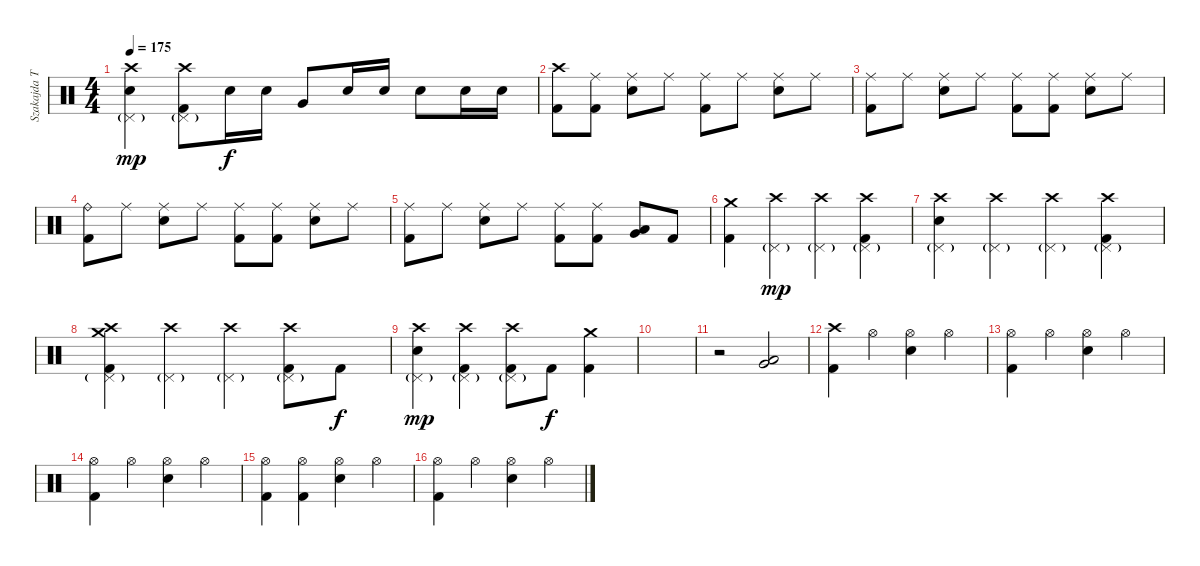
\track ("Szakajda Tibi" "Szakajda T") {instrument percussion}
\staff {score}
\articulation defaults
\ts (4 4)
\tempo 175
\clef neutral
\ks c
("Crash high (hit)" "Pedal Hi-Hat (hit)"{g} "Snare (hit) 2").4{dy mp} ("Crash high (hit)" "Pedal Hi-Hat (hit)"{g} "Kick (hit) 2").8 "Snare (hit) 2".16{dy f} "Snare (hit) 2".16 "Very Low Tom (hit)".8 "Snare (hit) 2".16 "Snare (hit) 2".16 "Snare (hit) 2".8 "Snare (hit) 2".16 "Snare (hit) 2".16 |
("Crash high (hit)" "Kick (hit) 2").8 ("Ride (middle)" "Kick (hit) 2").8 ("Ride (middle)" "Snare (hit) 2").8 "Ride (middle)".8 ("Ride (middle)" "Kick (hit) 2").8 "Ride (middle)".8 ("Ride (middle)" "Snare (hit) 2").8 "Ride (middle)".8 |
("Ride (middle)" "Kick (hit) 2").8 "Ride (middle)".8 ("Ride (middle)" "Snare (hit) 2").8 "Ride (middle)".8 ("Ride (middle)" "Kick (hit) 2").8 ("Ride (middle)" "Kick (hit) 2").8 ("Ride (middle)" "Snare (hit) 2").8 "Ride (middle)".8 |
("Ride (bell)" "Kick (hit) 2").8 "Ride (middle)".8 ("Ride (middle)" "Snare (hit) 2").8 "Ride (middle)".8 ("Ride (middle)" "Kick (hit) 2").8 ("Ride (middle)" "Kick (hit) 2").8 ("Ride (middle)" "Snare (hit) 2").8 "Ride (middle)".8 |
("Ride (middle)" "Kick (hit) 2").8 "Ride (middle)".8 ("Ride (middle)" "Snare (hit) 2").8 "Ride (middle)".8 ("Ride (middle)" "Kick (hit) 2").8 ("Ride (middle)" "Kick (hit) 2").8 ("Very Low Tom (hit)" "Low Tom (hit)").8 "Kick (hit) 2".8 |
("Crash medium (hit)" "Kick (hit) 2").4 ("Crash high (hit)" "Pedal Hi-Hat (hit)"{g}).4{dy mp} ("Crash high (hit)" "Pedal Hi-Hat (hit)"{g}).4 ("Crash high (hit)" "Pedal Hi-Hat (hit)"{g} "Kick (hit) 2").4 |
("Crash high (hit)" "Pedal Hi-Hat (hit)"{g} "Snare (hit) 2").4 ("Crash high (hit)" "Pedal Hi-Hat (hit)"{g}).4 ("Crash high (hit)" "Pedal Hi-Hat (hit)"{g}).4 ("Crash high (hit)" "Pedal Hi-Hat (hit)"{g} "Kick (hit) 2").4 |
("Crash high (hit)" "Pedal Hi-Hat (hit)"{g} "Crash medium (hit)" "Kick (hit) 2").4 ("Crash high (hit)" "Pedal Hi-Hat (hit)"{g}).4 ("Crash high (hit)" "Pedal Hi-Hat (hit)"{g}).4 ("Crash high (hit)" "Pedal Hi-Hat (hit)"{g} "Kick (hit) 2").8 "Kick (hit) 2".8{dy f} |
("Crash high (hit)" "Pedal Hi-Hat (hit)"{g} "Snare (hit) 2").4{dy mp} ("Crash high (hit)" "Pedal Hi-Hat (hit)"{g} "Kick (hit) 2").4 ("Crash high (hit)" "Pedal Hi-Hat (hit)"{g} "Kick (hit) 2").8 "Kick (hit) 2".8{dy f} ("Crash medium (hit)" "Kick (hit) 2").4 |
|
r.2 ("Low Tom (hit)" "Very Low Tom (hit)").2 |
("Crash high (hit)" "Kick (hit) 2").4 "Hi-Hat (open)".4 ("Hi-Hat (open)" "Snare (hit) 2").4 "Hi-Hat (open)".4 |
("Hi-Hat (open)" "Kick (hit) 2").4 "Hi-Hat (open)".4 ("Hi-Hat (open)" "Snare (hit) 2").4 "Hi-Hat (open)".4 |
("Hi-Hat (open)" "Kick (hit) 2").4 "Hi-Hat (open)".4 ("Hi-Hat (open)" "Snare (hit) 2").4 "Hi-Hat (open)".4 |
("Hi-Hat (open)" "Kick (hit) 2").4 ("Hi-Hat (open)" "Kick (hit) 2").4 ("Hi-Hat (open)" "Snare (hit) 2").4 "Hi-Hat (open)".4 |
("Hi-Hat (open)" "Kick (hit) 2").4 "Hi-Hat (open)".4 ("Hi-Hat (open)" "Snare (hit) 2").4 "Hi-Hat (open)".4
